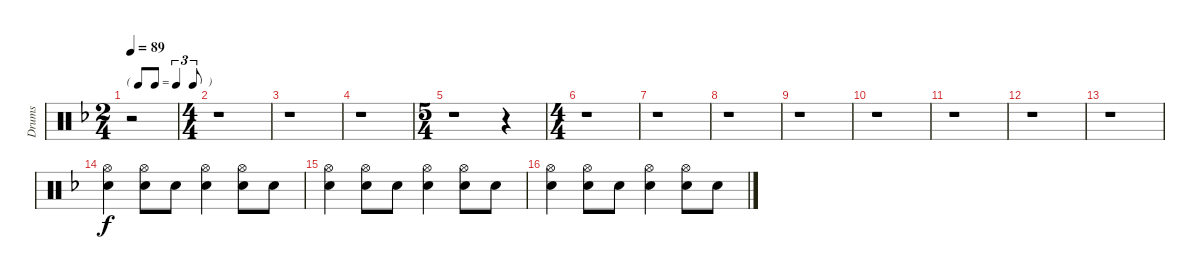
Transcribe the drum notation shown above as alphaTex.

\track ("Drums" "Drums") {instrument percussion}
\staff {score}
\articulation defaults
\ts (2 4)
\tf triplet8th
\tempo 89
\clef neutral
\ks f
r.2{dy f} |
\ts (4 4)
r.1 |
r.1 |
r.1 |
\ts (5 4)
r.1 r.4 |
\ts (4 4)
r.1 |
r.1 |
r.1 |
r.1 |
r.1 |
r.1 |
r.1 |
r.1 |
("Hi-Hat (open)" "Snare (hit) 2").4 ("Hi-Hat (open)" "Snare (hit) 2").8 "Snare (hit) 2".8 ("Hi-Hat (open)" "Snare (hit) 2").4 ("Hi-Hat (open)" "Snare (hit) 2").8 "Snare (hit) 2".8 |
("Hi-Hat (open)" "Snare (hit) 2").4 ("Hi-Hat (open)" "Snare (hit) 2").8 "Snare (hit) 2".8 ("Hi-Hat (open)" "Snare (hit) 2").4 ("Hi-Hat (open)" "Snare (hit) 2").8 "Snare (hit) 2".8 |
("Hi-Hat (open)" "Snare (hit) 2").4 ("Hi-Hat (open)" "Snare (hit) 2").8 "Snare (hit) 2".8 ("Hi-Hat (open)" "Snare (hit) 2").4 ("Hi-Hat (open)" "Snare (hit) 2").8 "Snare (hit) 2".8
